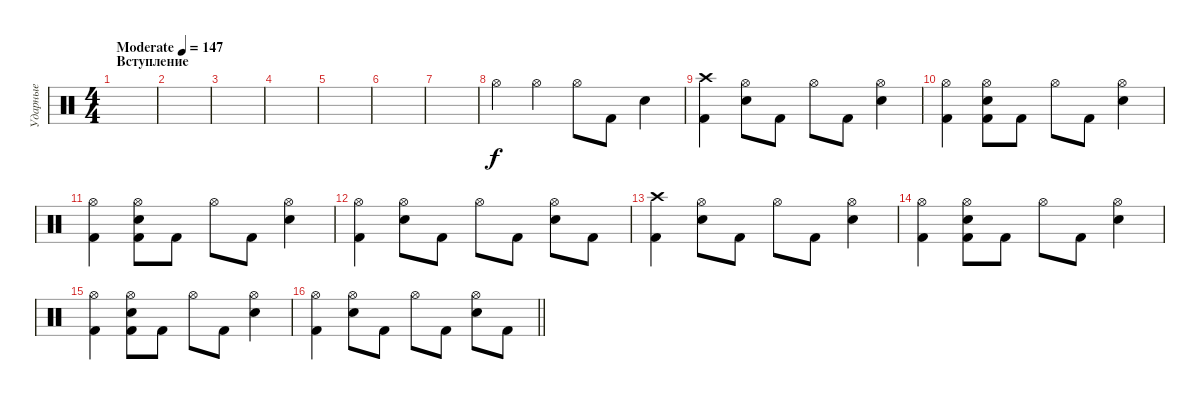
\track ("Ударные" "Ударные") {instrument percussion}
\staff {score}
\articulation defaults
\ts (4 4)
\section ("" "Вступление")
\tempo (147 "Moderate")
\clef neutral
\ks c
|
|
|
|
|
|
|
"Hi-Hat (open)".4 "Hi-Hat (open)".4 "Hi-Hat (open)".8 "Kick (hit) 2".8 "Snare (hit) 2".4 |
("Crash high (hit)" "Kick (hit) 2").4 ("Hi-Hat (open)" "Snare (hit) 2").8 "Kick (hit) 2".8 "Hi-Hat (open)".8 "Kick (hit) 2".8 ("Hi-Hat (open)" "Snare (hit) 2").4 |
("Hi-Hat (open)" "Kick (hit) 2").4 ("Hi-Hat (open)" "Snare (hit) 2" "Kick (hit) 2").8 "Kick (hit) 2".8 "Hi-Hat (open)".8 "Kick (hit) 2".8 ("Hi-Hat (open)" "Snare (hit) 2").4 |
("Hi-Hat (open)" "Kick (hit) 2").4 ("Hi-Hat (open)" "Snare (hit) 2" "Kick (hit) 2").8 "Kick (hit) 2".8 "Hi-Hat (open)".8 "Kick (hit) 2".8 ("Hi-Hat (open)" "Snare (hit) 2").4 |
("Hi-Hat (open)" "Kick (hit) 2").4 ("Hi-Hat (open)" "Snare (hit) 2").8 "Kick (hit) 2".8 "Hi-Hat (open)".8 "Kick (hit) 2".8 ("Hi-Hat (open)" "Snare (hit) 2").8 "Kick (hit) 2".8 |
("Crash high (hit)" "Kick (hit) 2").4 ("Hi-Hat (open)" "Snare (hit) 2").8 "Kick (hit) 2".8 "Hi-Hat (open)".8 "Kick (hit) 2".8 ("Hi-Hat (open)" "Snare (hit) 2").4 |
("Hi-Hat (open)" "Kick (hit) 2").4 ("Hi-Hat (open)" "Snare (hit) 2" "Kick (hit) 2").8 "Kick (hit) 2".8 "Hi-Hat (open)".8 "Kick (hit) 2".8 ("Hi-Hat (open)" "Snare (hit) 2").4 |
("Hi-Hat (open)" "Kick (hit) 2").4 ("Hi-Hat (open)" "Snare (hit) 2" "Kick (hit) 2").8 "Kick (hit) 2".8 "Hi-Hat (open)".8 "Kick (hit) 2".8 ("Hi-Hat (open)" "Snare (hit) 2").4 |
\barLineRight lightlight
("Hi-Hat (open)" "Kick (hit) 2").4 ("Hi-Hat (open)" "Snare (hit) 2").8 "Kick (hit) 2".8 "Hi-Hat (open)".8 "Kick (hit) 2".8 ("Hi-Hat (open)" "Snare (hit) 2").8 "Kick (hit) 2".8
